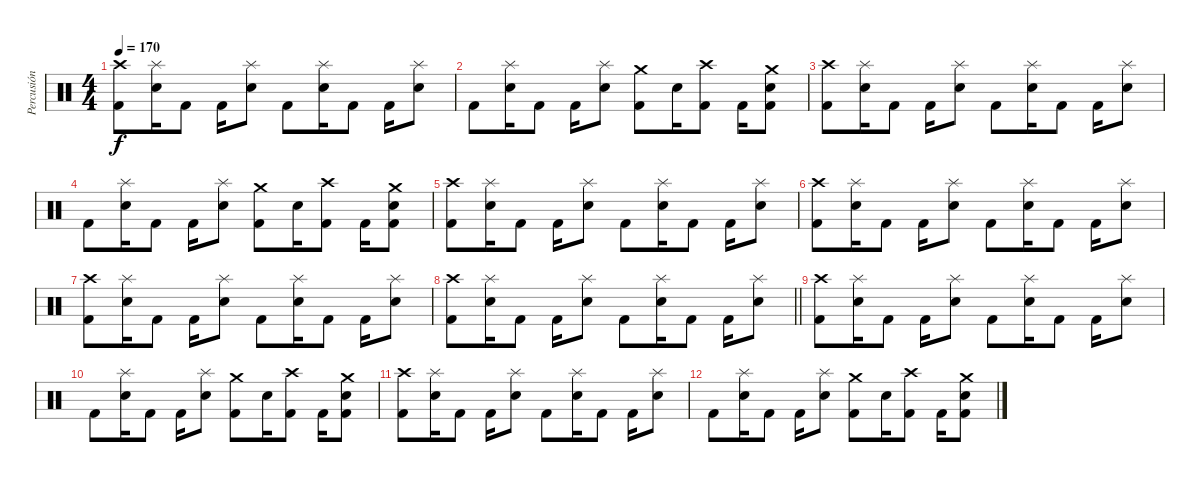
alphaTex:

\track ("Percusión" "Percusión") {instrument percussion}
\staff {score}
\articulation defaults
\ts (4 4)
\section ("" "")
\tempo 170
\clef neutral
\ks c
("Crash high (hit)" "Kick (hit) 2").8{dy f} ("Splash (hit)" "Snare (hit) 2").16 "Kick (hit) 2".8 "Kick (hit) 2".16 ("Splash (hit)" "Snare (hit) 2").8 "Kick (hit) 2".8 ("Splash (hit)" "Snare (hit) 2").16 "Kick (hit) 2".8 "Kick (hit) 2".16 ("Splash (hit)" "Snare (hit) 2").8 |
"Kick (hit) 2".8 ("Splash (hit)" "Snare (hit) 2").16 "Kick (hit) 2".8 "Kick (hit) 2".16 ("Splash (hit)" "Snare (hit) 2").8 ("Crash medium (hit)" "Kick (hit) 2").8 "Snare (hit) 2".16 ("Crash high (hit)" "Kick (hit) 2").8 "Kick (hit) 2".16 ("Crash medium (hit)" "Snare (hit) 2" "Kick (hit) 2").8 |
("Crash high (hit)" "Kick (hit) 2").8 ("Splash (hit)" "Snare (hit) 2").16 "Kick (hit) 2".8 "Kick (hit) 2".16 ("Splash (hit)" "Snare (hit) 2").8 "Kick (hit) 2".8 ("Splash (hit)" "Snare (hit) 2").16 "Kick (hit) 2".8 "Kick (hit) 2".16 ("Splash (hit)" "Snare (hit) 2").8 |
"Kick (hit) 2".8 ("Splash (hit)" "Snare (hit) 2").16 "Kick (hit) 2".8 "Kick (hit) 2".16 ("Splash (hit)" "Snare (hit) 2").8 ("Crash medium (hit)" "Kick (hit) 2").8 "Snare (hit) 2".16 ("Crash high (hit)" "Kick (hit) 2").8 "Kick (hit) 2".16 ("Crash medium (hit)" "Snare (hit) 2" "Kick (hit) 2").8 |
("Crash high (hit)" "Kick (hit) 2").8 ("Splash (hit)" "Snare (hit) 2").16 "Kick (hit) 2".8 "Kick (hit) 2".16 ("Splash (hit)" "Snare (hit) 2").8 "Kick (hit) 2".8 ("Splash (hit)" "Snare (hit) 2").16 "Kick (hit) 2".8 "Kick (hit) 2".16 ("Splash (hit)" "Snare (hit) 2").8 |
("Crash high (hit)" "Kick (hit) 2").8 ("Splash (hit)" "Snare (hit) 2").16 "Kick (hit) 2".8 "Kick (hit) 2".16 ("Splash (hit)" "Snare (hit) 2").8 "Kick (hit) 2".8 ("Splash (hit)" "Snare (hit) 2").16 "Kick (hit) 2".8 "Kick (hit) 2".16 ("Splash (hit)" "Snare (hit) 2").8 |
("Crash high (hit)" "Kick (hit) 2").8 ("Splash (hit)" "Snare (hit) 2").16 "Kick (hit) 2".8 "Kick (hit) 2".16 ("Splash (hit)" "Snare (hit) 2").8 "Kick (hit) 2".8 ("Splash (hit)" "Snare (hit) 2").16 "Kick (hit) 2".8 "Kick (hit) 2".16 ("Splash (hit)" "Snare (hit) 2").8 |
\barLineRight lightlight
("Crash high (hit)" "Kick (hit) 2").8 ("Splash (hit)" "Snare (hit) 2").16 "Kick (hit) 2".8 "Kick (hit) 2".16 ("Splash (hit)" "Snare (hit) 2").8 "Kick (hit) 2".8 ("Splash (hit)" "Snare (hit) 2").16 "Kick (hit) 2".8 "Kick (hit) 2".16 ("Splash (hit)" "Snare (hit) 2").8 |
\section ("" "")
("Crash high (hit)" "Kick (hit) 2").8 ("Splash (hit)" "Snare (hit) 2").16 "Kick (hit) 2".8 "Kick (hit) 2".16 ("Splash (hit)" "Snare (hit) 2").8 "Kick (hit) 2".8 ("Splash (hit)" "Snare (hit) 2").16 "Kick (hit) 2".8 "Kick (hit) 2".16 ("Splash (hit)" "Snare (hit) 2").8 |
"Kick (hit) 2".8 ("Splash (hit)" "Snare (hit) 2").16 "Kick (hit) 2".8 "Kick (hit) 2".16 ("Splash (hit)" "Snare (hit) 2").8 ("Crash medium (hit)" "Kick (hit) 2").8 "Snare (hit) 2".16 ("Crash high (hit)" "Kick (hit) 2").8 "Kick (hit) 2".16 ("Crash medium (hit)" "Snare (hit) 2" "Kick (hit) 2").8 |
("Crash high (hit)" "Kick (hit) 2").8 ("Splash (hit)" "Snare (hit) 2").16 "Kick (hit) 2".8 "Kick (hit) 2".16 ("Splash (hit)" "Snare (hit) 2").8 "Kick (hit) 2".8 ("Splash (hit)" "Snare (hit) 2").16 "Kick (hit) 2".8 "Kick (hit) 2".16 ("Splash (hit)" "Snare (hit) 2").8 |
"Kick (hit) 2".8 ("Splash (hit)" "Snare (hit) 2").16 "Kick (hit) 2".8 "Kick (hit) 2".16 ("Splash (hit)" "Snare (hit) 2").8 ("Crash medium (hit)" "Kick (hit) 2").8 "Snare (hit) 2".16 ("Crash high (hit)" "Kick (hit) 2").8 "Kick (hit) 2".16 ("Crash medium (hit)" "Snare (hit) 2" "Kick (hit) 2").8
